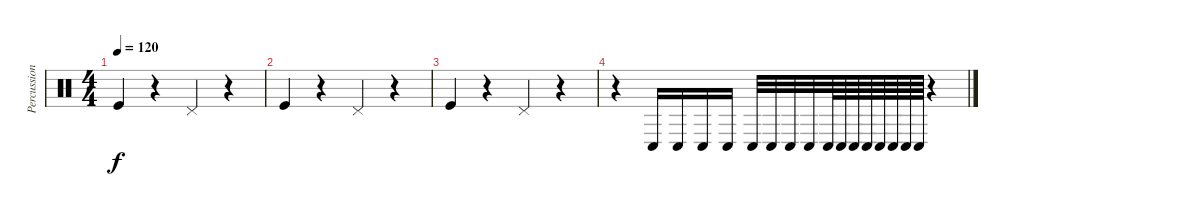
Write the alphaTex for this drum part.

\track ("Percussion" "Percussion") {instrument percussion}
\staff {score}
\articulation defaults
\ts (4 4)
\tempo 120
\clef neutral
\ks c "Kick (hit)".4{dy f}
r.4 "Pedal Hi-Hat (hit)".4 r.4 |
"Kick (hit)".4 r.4 "Pedal Hi-Hat (hit)".4 r.4 |
"Kick (hit)".4 r.4 "Pedal Hi-Hat (hit)".4 r.4 |
r.4 "Conga low (hit)".16 "Conga low (hit)".16 "Conga low (hit)".16 "Conga low (hit)".16 "Conga low (hit)".32 "Conga low (hit)".32 "Conga low (hit)".32 "Conga low (hit)".32 "Conga low (hit)".64 "Conga low (hit)".64 "Conga low (hit)".64 "Conga low (hit)".64 "Conga low (hit)".64 "Conga low (hit)".64 "Conga low (hit)".64 "Conga low (hit)".64 r.4
